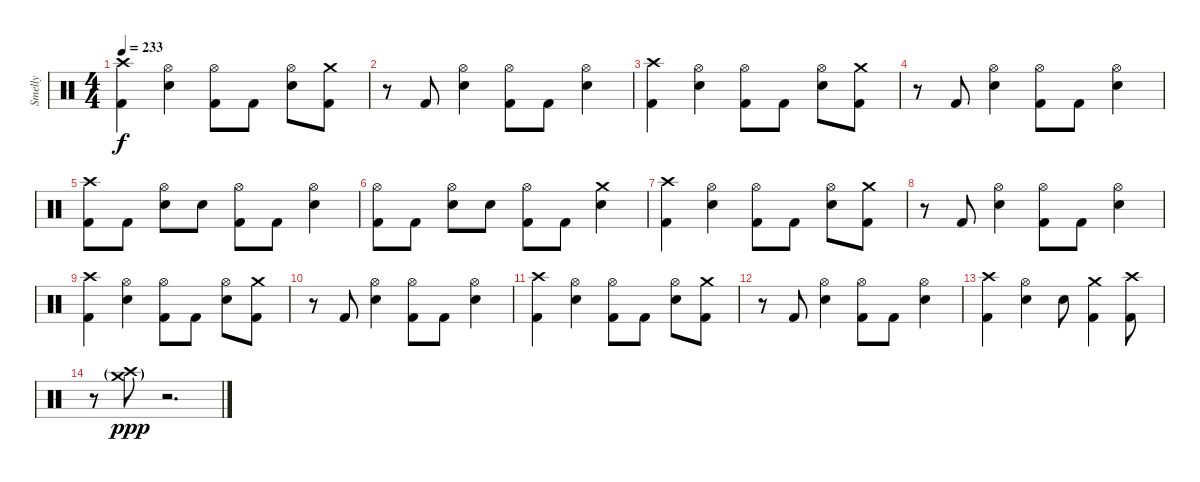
\track ("Smelly" "Smelly") {instrument percussion}
\staff {score}
\articulation defaults
\ts (4 4)
\tempo 233
\clef neutral
\ks c
("Crash high (hit)" "Kick (hit) 2").4{dy f} ("Hi-Hat (open)" "Electric Snare (hit)").4 ("Hi-Hat (open)" "Kick (hit) 2").8 "Kick (hit) 2".8 ("Hi-Hat (open)" "Electric Snare (hit)").8 ("Crash medium (hit)" "Kick (hit) 2").8 |
r.8 "Kick (hit) 2".8 ("Hi-Hat (open)" "Electric Snare (hit)").4 ("Hi-Hat (open)" "Kick (hit) 2").8 "Kick (hit) 2".8 ("Hi-Hat (open)" "Electric Snare (hit)").4 |
("Crash high (hit)" "Kick (hit) 2").4 ("Hi-Hat (open)" "Electric Snare (hit)").4 ("Hi-Hat (open)" "Kick (hit) 2").8 "Kick (hit) 2".8 ("Hi-Hat (open)" "Electric Snare (hit)").8 ("Crash medium (hit)" "Kick (hit) 2").8 |
r.8 "Kick (hit) 2".8 ("Hi-Hat (open)" "Electric Snare (hit)").4 ("Hi-Hat (open)" "Kick (hit) 2").8 "Kick (hit) 2".8 ("Hi-Hat (open)" "Electric Snare (hit)").4 |
("Crash high (hit)" "Kick (hit) 2").8 "Kick (hit) 2".8 ("Hi-Hat (open)" "Electric Snare (hit)").8 "Electric Snare (hit)".8 ("Hi-Hat (open)" "Kick (hit) 2").8 "Kick (hit) 2".8 ("Hi-Hat (open)" "Electric Snare (hit)").4 |
("Hi-Hat (open)" "Kick (hit) 2").8 "Kick (hit) 2".8 ("Hi-Hat (open)" "Electric Snare (hit)").8 "Electric Snare (hit)".8 ("Hi-Hat (open)" "Kick (hit) 2").8 "Kick (hit) 2".8 ("Crash medium (hit)" "Electric Snare (hit)").4 |
("Crash high (hit)" "Kick (hit) 2").4 ("Hi-Hat (open)" "Electric Snare (hit)").4 ("Hi-Hat (open)" "Kick (hit) 2").8 "Kick (hit) 2".8 ("Hi-Hat (open)" "Electric Snare (hit)").8 ("Crash medium (hit)" "Kick (hit) 2").8 |
r.8 "Kick (hit) 2".8 ("Hi-Hat (open)" "Electric Snare (hit)").4 ("Hi-Hat (open)" "Kick (hit) 2").8 "Kick (hit) 2".8 ("Hi-Hat (open)" "Electric Snare (hit)").4 |
("Crash high (hit)" "Kick (hit) 2").4 ("Hi-Hat (open)" "Electric Snare (hit)").4 ("Hi-Hat (open)" "Kick (hit) 2").8 "Kick (hit) 2".8 ("Hi-Hat (open)" "Electric Snare (hit)").8 ("Crash medium (hit)" "Kick (hit) 2").8 |
r.8 "Kick (hit) 2".8 ("Hi-Hat (open)" "Electric Snare (hit)").4 ("Hi-Hat (open)" "Kick (hit) 2").8 "Kick (hit) 2".8 ("Hi-Hat (open)" "Electric Snare (hit)").4 |
("Crash high (hit)" "Kick (hit) 2").4 ("Hi-Hat (open)" "Electric Snare (hit)").4 ("Hi-Hat (open)" "Kick (hit) 2").8 "Kick (hit) 2".8 ("Hi-Hat (open)" "Electric Snare (hit)").8 ("Crash medium (hit)" "Kick (hit) 2").8 |
r.8 "Kick (hit) 2".8 ("Hi-Hat (open)" "Electric Snare (hit)").4 ("Hi-Hat (open)" "Kick (hit) 2").8 "Kick (hit) 2".8 ("Hi-Hat (open)" "Electric Snare (hit)").4 |
("Crash high (hit)" "Kick (hit) 2").4 ("Hi-Hat (open)" "Electric Snare (hit)").4 "Electric Snare (hit)".8 ("Crash medium (hit)" "Kick (hit) 2").4 ("Crash high (hit)" "Kick (hit) 2").8 |
r.8 ("Crash high (hit)"{g} "Crash medium (hit)"{g}).8{dy ppp} r.2{d}
